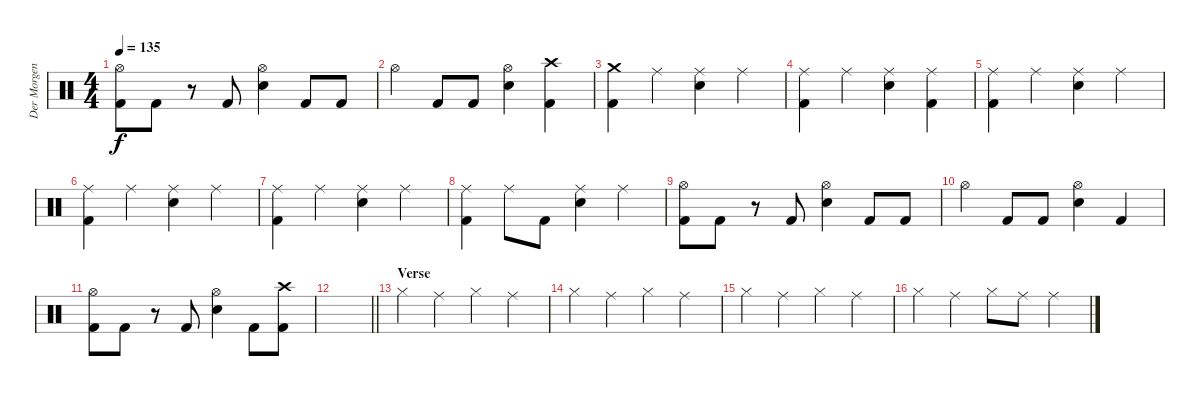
\track ("Der Morgenstern" "Der Morgen") {instrument percussion}
\staff {score}
\articulation defaults
\ts (4 4)
\tempo 135
\clef neutral
\ks c
("Hi-Hat (open)" "Kick (hit) 2").8{dy f} "Kick (hit) 2".8 r.8 "Kick (hit) 2".8 ("Hi-Hat (open)" "Electric Snare (hit)").4 "Kick (hit) 2".8 "Kick (hit) 2".8 |
"Hi-Hat (open)".4 "Kick (hit) 2".8 "Kick (hit) 2".8 ("Hi-Hat (open)" "Electric Snare (hit)").4 ("Crash high (hit)" "Kick (hit) 2").4 |
("Crash medium (hit)" "Kick (hit) 2").4 "Ride (middle)".4 ("Ride (middle)" "Electric Snare (hit)").4 "Ride (middle)".4 |
("Ride (middle)" "Kick (hit) 2").4 "Ride (middle)".4 ("Ride (middle)" "Electric Snare (hit)").4 ("Ride (middle)" "Kick (hit) 2").4 |
("Ride (middle)" "Kick (hit) 2").4 "Ride (middle)".4 ("Ride (middle)" "Electric Snare (hit)").4 "Ride (middle)".4 |
("Ride (middle)" "Kick (hit) 2").4 "Ride (middle)".4 ("Ride (middle)" "Electric Snare (hit)").4 "Ride (middle)".4 |
("Ride (middle)" "Kick (hit) 2").4 "Ride (middle)".4 ("Ride (middle)" "Electric Snare (hit)").4 "Ride (middle)".4 |
("Ride (middle)" "Kick (hit) 2").4 "Ride (middle)".8 "Kick (hit) 2".8 ("Ride (middle)" "Electric Snare (hit)").4 "Ride (middle)".4 |
("Hi-Hat (open)" "Kick (hit) 2").8 "Kick (hit) 2".8 r.8 "Kick (hit) 2".8 ("Hi-Hat (open)" "Electric Snare (hit)").4 "Kick (hit) 2".8 "Kick (hit) 2".8 |
"Hi-Hat (open)".4 "Kick (hit) 2".8 "Kick (hit) 2".8 ("Hi-Hat (open)" "Electric Snare (hit)").4 "Kick (hit) 2".4 |
("Hi-Hat (open)" "Kick (hit) 2").8 "Kick (hit) 2".8 r.8 "Kick (hit) 2".8 ("Hi-Hat (open)" "Electric Snare (hit)").4 "Kick (hit) 2".8 ("Crash high (hit)" "Kick (hit) 2").8 |
\barLineRight lightlight
|
\section ("" "Verse")
"Hi-Hat (closed)".4 "Ride (middle)".4 "Hi-Hat (closed)".4 "Ride (middle)".4 |
"Hi-Hat (closed)".4 "Ride (middle)".4 "Hi-Hat (closed)".4 "Ride (middle)".4 |
"Hi-Hat (closed)".4 "Ride (middle)".4 "Hi-Hat (closed)".4 "Ride (middle)".4 |
"Hi-Hat (closed)".4 "Ride (middle)".4 "Hi-Hat (closed)".8 "Ride (middle)".8 "Ride (middle)".4
